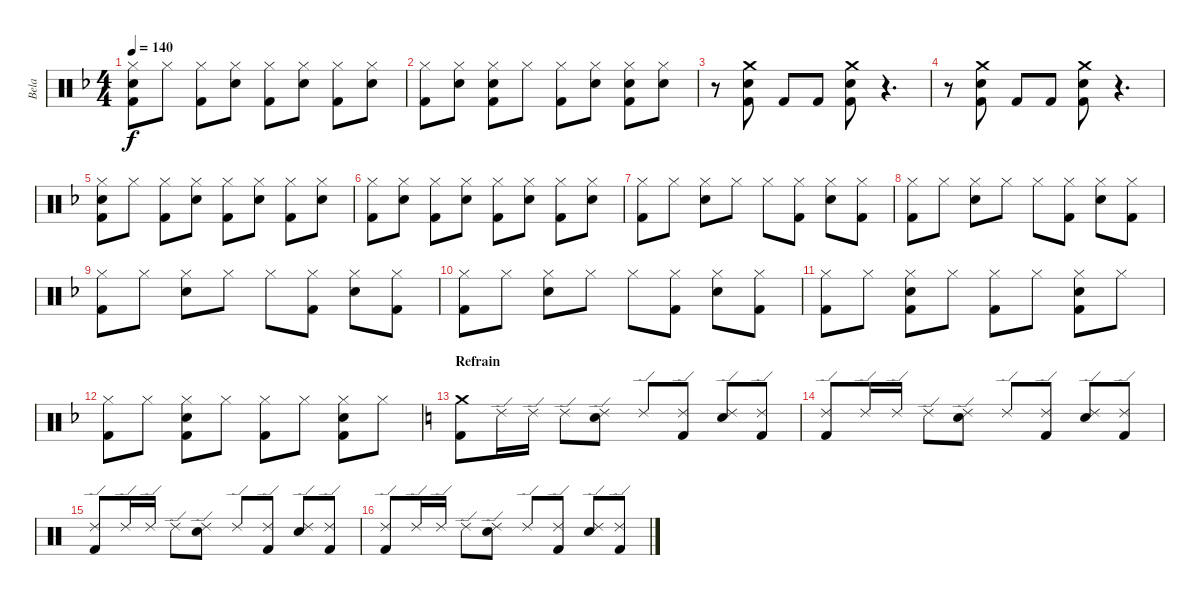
\track ("Bela" "Bela") {instrument percussion}
\staff {score}
\articulation defaults
\ts (4 4)
\tempo 140
\clef neutral
\ks f
("Hi-Hat (closed)" "Snare (hit) 2" "Kick (hit) 2").8{dy f} "Hi-Hat (closed)".8 ("Hi-Hat (closed)" "Kick (hit) 2").8 ("Hi-Hat (closed)" "Snare (hit) 2").8 ("Hi-Hat (closed)" "Kick (hit) 2").8 ("Hi-Hat (closed)" "Snare (hit) 2").8 ("Hi-Hat (closed)" "Kick (hit) 2").8 ("Hi-Hat (closed)" "Snare (hit) 2").8 |
("Hi-Hat (closed)" "Kick (hit) 2").8 ("Hi-Hat (closed)" "Snare (hit) 2").8 ("Hi-Hat (closed)" "Snare (hit) 2" "Kick (hit) 2").8 "Hi-Hat (closed)".8 ("Hi-Hat (closed)" "Kick (hit) 2").8 ("Hi-Hat (closed)" "Snare (hit) 2").8 ("Hi-Hat (closed)" "Snare (hit) 2" "Kick (hit) 2").8 ("Hi-Hat (closed)" "Snare (hit) 2").8 |
r.8 ("Crash medium (hit)" "Snare (hit) 2" "Kick (hit) 2").8 "Kick (hit) 2".8 "Kick (hit) 2".8 ("Crash medium (hit)" "Snare (hit) 2" "Kick (hit) 2").8 r.4{d} |
r.8 ("Crash medium (hit)" "Snare (hit) 2" "Kick (hit) 2").8 "Kick (hit) 2".8 "Kick (hit) 2".8 ("Crash medium (hit)" "Snare (hit) 2" "Kick (hit) 2").8 r.4{d} |
("Hi-Hat (closed)" "Snare (hit) 2" "Kick (hit) 2").8 "Hi-Hat (closed)".8 ("Hi-Hat (closed)" "Kick (hit) 2").8 ("Hi-Hat (closed)" "Snare (hit) 2").8 ("Hi-Hat (closed)" "Kick (hit) 2").8 ("Hi-Hat (closed)" "Snare (hit) 2").8 ("Hi-Hat (closed)" "Kick (hit) 2").8 ("Hi-Hat (closed)" "Snare (hit) 2").8 |
("Hi-Hat (closed)" "Kick (hit) 2").8 ("Hi-Hat (closed)" "Snare (hit) 2").8 ("Hi-Hat (closed)" "Kick (hit) 2").8 ("Hi-Hat (closed)" "Snare (hit) 2").8 ("Hi-Hat (closed)" "Kick (hit) 2").8 ("Hi-Hat (closed)" "Snare (hit) 2").8 ("Hi-Hat (closed)" "Kick (hit) 2").8 ("Hi-Hat (closed)" "Snare (hit) 2").8 |
("Hi-Hat (closed)" "Kick (hit) 2").8 "Hi-Hat (closed)".8 ("Hi-Hat (closed)" "Snare (hit) 2").8 "Hi-Hat (closed)".8 "Hi-Hat (closed)".8 ("Hi-Hat (closed)" "Kick (hit) 2").8 ("Hi-Hat (closed)" "Snare (hit) 2").8 ("Hi-Hat (closed)" "Kick (hit) 2").8 |
("Hi-Hat (closed)" "Kick (hit) 2").8 "Hi-Hat (closed)".8 ("Hi-Hat (closed)" "Snare (hit) 2").8 "Hi-Hat (closed)".8 "Hi-Hat (closed)".8 ("Hi-Hat (closed)" "Kick (hit) 2").8 ("Hi-Hat (closed)" "Snare (hit) 2").8 ("Hi-Hat (closed)" "Kick (hit) 2").8 |
("Hi-Hat (closed)" "Kick (hit) 2").8 "Hi-Hat (closed)".8 ("Hi-Hat (closed)" "Snare (hit) 2").8 "Hi-Hat (closed)".8 "Hi-Hat (closed)".8 ("Hi-Hat (closed)" "Kick (hit) 2").8 ("Hi-Hat (closed)" "Snare (hit) 2").8 ("Hi-Hat (closed)" "Kick (hit) 2").8 |
("Hi-Hat (closed)" "Kick (hit) 2").8 "Hi-Hat (closed)".8 ("Hi-Hat (closed)" "Snare (hit) 2").8 "Hi-Hat (closed)".8 "Hi-Hat (closed)".8 ("Hi-Hat (closed)" "Kick (hit) 2").8 ("Hi-Hat (closed)" "Snare (hit) 2").8 ("Hi-Hat (closed)" "Kick (hit) 2").8 |
("Hi-Hat (closed)" "Kick (hit) 2").8 "Hi-Hat (closed)".8 ("Hi-Hat (closed)" "Snare (hit) 2" "Kick (hit) 2").8 "Hi-Hat (closed)".8 ("Hi-Hat (closed)" "Kick (hit) 2").8 "Hi-Hat (closed)".8 ("Hi-Hat (closed)" "Snare (hit) 2" "Kick (hit) 2").8 "Hi-Hat (closed)".8 |
("Hi-Hat (closed)" "Kick (hit) 2").8 "Hi-Hat (closed)".8 ("Hi-Hat (closed)" "Snare (hit) 2" "Kick (hit) 2").8 "Hi-Hat (closed)".8 ("Hi-Hat (closed)" "Kick (hit) 2").8 "Hi-Hat (closed)".8 ("Hi-Hat (closed)" "Snare (hit) 2" "Kick (hit) 2").8 "Hi-Hat (closed)".8 |
\section ("" "Refrain")
\ks c
("Crash medium (hit)" "Kick (hit) 2").8 "Ride (edge) 2".16 "Ride (edge) 2".16 "Ride (edge) 2".8 ("Ride (edge) 2" "Snare (hit) 2").8 "Ride (edge) 2".8 ("Ride (edge) 2" "Kick (hit) 2").8 ("Ride (edge) 2" "Snare (hit) 2").8 ("Ride (edge) 2" "Kick (hit) 2").8 |
("Ride (edge) 2" "Kick (hit) 2").8 "Ride (edge) 2".16 "Ride (edge) 2".16 "Ride (edge) 2".8 ("Ride (edge) 2" "Snare (hit) 2").8 "Ride (edge) 2".8 ("Ride (edge) 2" "Kick (hit) 2").8 ("Ride (edge) 2" "Snare (hit) 2").8 ("Ride (edge) 2" "Kick (hit) 2").8 |
("Ride (edge) 2" "Kick (hit) 2").8 "Ride (edge) 2".16 "Ride (edge) 2".16 "Ride (edge) 2".8 ("Ride (edge) 2" "Snare (hit) 2").8 "Ride (edge) 2".8 ("Ride (edge) 2" "Kick (hit) 2").8 ("Ride (edge) 2" "Snare (hit) 2").8 ("Ride (edge) 2" "Kick (hit) 2").8 |
("Ride (edge) 2" "Kick (hit) 2").8 "Ride (edge) 2".16 "Ride (edge) 2".16 "Ride (edge) 2".8 ("Ride (edge) 2" "Snare (hit) 2").8 "Ride (edge) 2".8 ("Ride (edge) 2" "Kick (hit) 2").8 ("Ride (edge) 2" "Snare (hit) 2").8 ("Ride (edge) 2" "Kick (hit) 2").8
